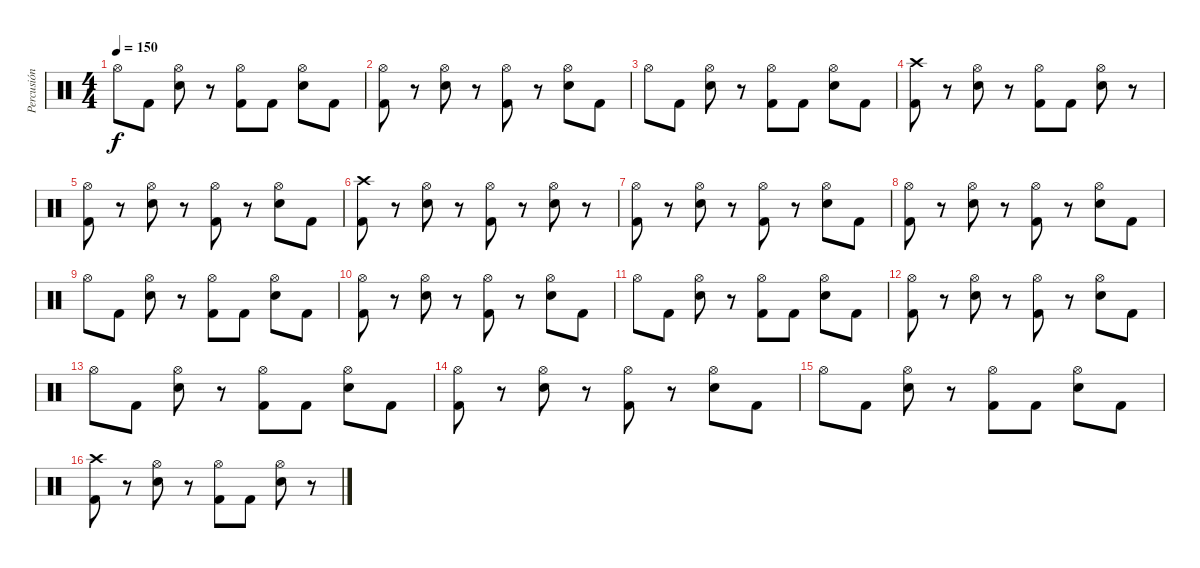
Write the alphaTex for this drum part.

\track ("Percusión" "Percusión") {instrument percussion}
\staff {score}
\articulation defaults
\ts (4 4)
\tempo 150
\clef neutral
\ks c "Hi-Hat (open)".8{dy f} "Kick (hit) 2".8
("Hi-Hat (open)" "Electric Snare (hit)").8 r.8 ("Hi-Hat (open)" "Kick (hit) 2").8 "Kick (hit) 2".8 ("Hi-Hat (open)" "Electric Snare (hit)").8 "Kick (hit) 2".8 |
("Hi-Hat (open)" "Kick (hit) 2").8 r.8 ("Hi-Hat (open)" "Electric Snare (hit)").8 r.8 ("Hi-Hat (open)" "Kick (hit) 2").8 r.8 ("Hi-Hat (open)" "Electric Snare (hit)").8 "Kick (hit) 2".8 |
"Hi-Hat (open)".8 "Kick (hit) 2".8 ("Hi-Hat (open)" "Electric Snare (hit)").8 r.8 ("Hi-Hat (open)" "Kick (hit) 2").8 "Kick (hit) 2".8 ("Hi-Hat (open)" "Electric Snare (hit)").8 "Kick (hit) 2".8 |
("Crash high (hit)" "Kick (hit) 2").8 r.8 ("Hi-Hat (open)" "Electric Snare (hit)").8 r.8 ("Hi-Hat (open)" "Kick (hit) 2").8 "Kick (hit) 2".8 ("Hi-Hat (open)" "Electric Snare (hit)").8 r.8 |
("Hi-Hat (open)" "Kick (hit) 2").8 r.8 ("Hi-Hat (open)" "Electric Snare (hit)").8 r.8 ("Hi-Hat (open)" "Kick (hit) 2").8 r.8 ("Hi-Hat (open)" "Electric Snare (hit)").8 "Kick (hit) 2".8 |
("Crash high (hit)" "Kick (hit) 2").8 r.8 ("Hi-Hat (open)" "Electric Snare (hit)").8 r.8 ("Hi-Hat (open)" "Kick (hit) 2").8 r.8 ("Hi-Hat (open)" "Electric Snare (hit)").8 r.8 |
("Hi-Hat (open)" "Kick (hit) 2").8 r.8 ("Hi-Hat (open)" "Electric Snare (hit)").8 r.8 ("Hi-Hat (open)" "Kick (hit) 2").8 r.8 ("Hi-Hat (open)" "Electric Snare (hit)").8 "Kick (hit) 2".8 |
("Hi-Hat (open)" "Kick (hit) 2").8 r.8 ("Hi-Hat (open)" "Electric Snare (hit)").8 r.8 ("Hi-Hat (open)" "Kick (hit) 2").8 r.8 ("Hi-Hat (open)" "Electric Snare (hit)").8 "Kick (hit) 2".8 |
"Hi-Hat (open)".8 "Kick (hit) 2".8 ("Hi-Hat (open)" "Electric Snare (hit)").8 r.8 ("Hi-Hat (open)" "Kick (hit) 2").8 "Kick (hit) 2".8 ("Hi-Hat (open)" "Electric Snare (hit)").8 "Kick (hit) 2".8 |
("Hi-Hat (open)" "Kick (hit) 2").8 r.8 ("Hi-Hat (open)" "Electric Snare (hit)").8 r.8 ("Hi-Hat (open)" "Kick (hit) 2").8 r.8 ("Hi-Hat (open)" "Electric Snare (hit)").8 "Kick (hit) 2".8 |
"Hi-Hat (open)".8 "Kick (hit) 2".8 ("Hi-Hat (open)" "Electric Snare (hit)").8 r.8 ("Hi-Hat (open)" "Kick (hit) 2").8 "Kick (hit) 2".8 ("Hi-Hat (open)" "Electric Snare (hit)").8 "Kick (hit) 2".8 |
("Hi-Hat (open)" "Kick (hit) 2").8 r.8 ("Hi-Hat (open)" "Electric Snare (hit)").8 r.8 ("Hi-Hat (open)" "Kick (hit) 2").8 r.8 ("Hi-Hat (open)" "Electric Snare (hit)").8 "Kick (hit) 2".8 |
"Hi-Hat (open)".8 "Kick (hit) 2".8 ("Hi-Hat (open)" "Electric Snare (hit)").8 r.8 ("Hi-Hat (open)" "Kick (hit) 2").8 "Kick (hit) 2".8 ("Hi-Hat (open)" "Electric Snare (hit)").8 "Kick (hit) 2".8 |
("Hi-Hat (open)" "Kick (hit) 2").8 r.8 ("Hi-Hat (open)" "Electric Snare (hit)").8 r.8 ("Hi-Hat (open)" "Kick (hit) 2").8 r.8 ("Hi-Hat (open)" "Electric Snare (hit)").8 "Kick (hit) 2".8 |
"Hi-Hat (open)".8 "Kick (hit) 2".8 ("Hi-Hat (open)" "Electric Snare (hit)").8 r.8 ("Hi-Hat (open)" "Kick (hit) 2").8 "Kick (hit) 2".8 ("Hi-Hat (open)" "Electric Snare (hit)").8 "Kick (hit) 2".8 |
("Crash high (hit)" "Kick (hit) 2").8 r.8 ("Hi-Hat (open)" "Electric Snare (hit)").8 r.8 ("Hi-Hat (open)" "Kick (hit) 2").8 "Kick (hit) 2".8 ("Hi-Hat (open)" "Electric Snare (hit)").8 r.8
